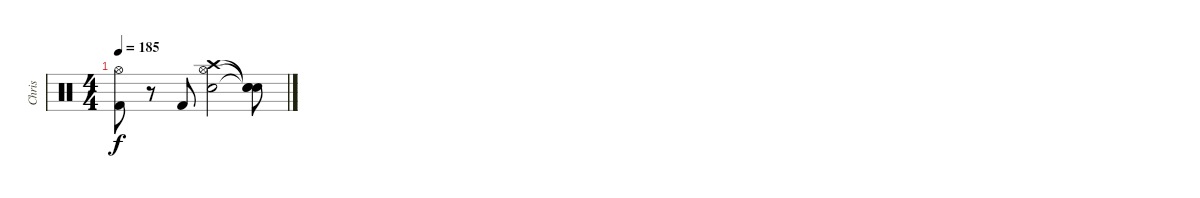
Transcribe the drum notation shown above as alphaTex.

\track ("Chris" "Chris") {instrument percussion}
\staff {score}
\articulation defaults
\ts (4 4)
\tempo 185
\clef neutral
\ks c
("Hi-Hat (open)" "Kick (hit) 2").8{dy f} r.8 "Kick (hit) 2".8 ("Snare (hit) 2" "Crash high (hit)" "Hi-Hat (open)").2 ("Snare (hit)"{t} "Snare (hit)"{t} "Snare (hit)"{t}).8
